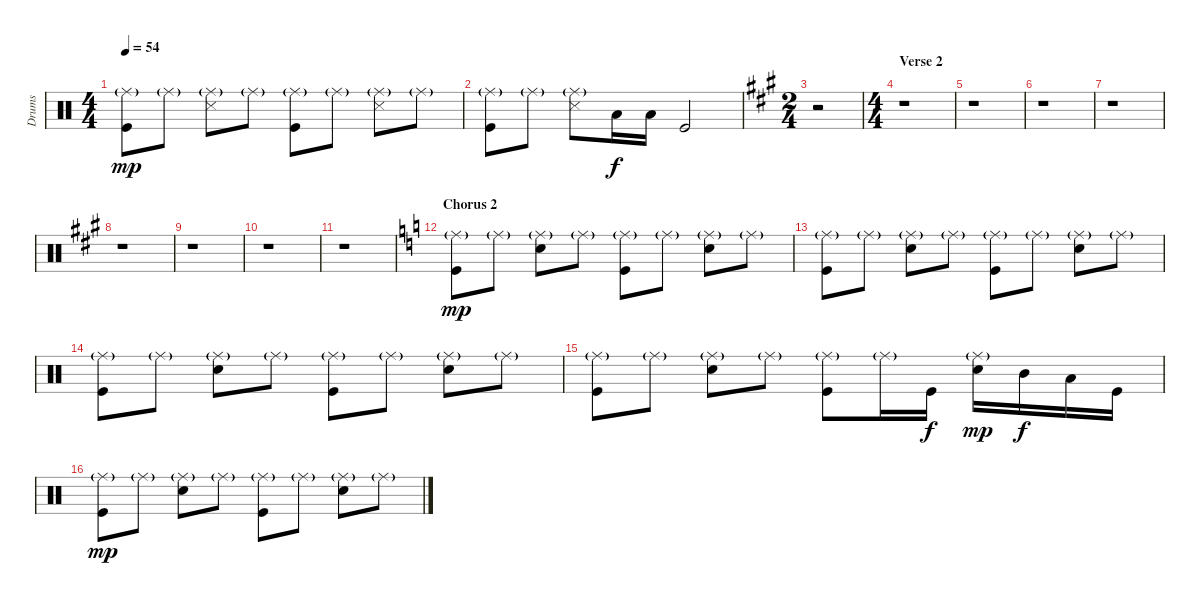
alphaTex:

\track ("Drums" "Drums") {instrument percussion}
\staff {score}
\articulation defaults
\ts (4 4)
\tempo 54
\clef neutral
\ks c
("Ride (middle)"{g} "Kick (hit)").8{dy mp} "Ride (middle)"{g}.8 ("Ride (middle)"{g} "Snare (side stick) 3").8 "Ride (middle)"{g}.8 ("Ride (middle)"{g} "Kick (hit)").8 "Ride (middle)"{g}.8 ("Ride (middle)"{g} "Snare (side stick) 3").8 "Ride (middle)"{g}.8 |
("Ride (middle)"{g} "Kick (hit)").8 "Ride (middle)"{g}.8 ("Ride (middle)"{g} "Snare (side stick) 3").8 "Low Tom (hit)".16{dy f} "Low Tom (hit)".16 "Kick (hit)".2 |
\ts (2 4)
\ks a
r.2 |
\ts (4 4)
\section ("" "Verse 2")
r.1 |
r.1 |
r.1 |
r.1 |
r.1 |
r.1 |
r.1 |
r.1 |
\section ("" "Chorus 2")
\ks c
("Ride (middle)"{g} "Kick (hit)").8{dy mp} "Ride (middle)"{g}.8 ("Ride (middle)"{g} "Electric Snare (hit)").8 "Ride (middle)"{g}.8 ("Ride (middle)"{g} "Kick (hit)").8 "Ride (middle)"{g}.8 ("Ride (middle)"{g} "Electric Snare (hit)").8 "Ride (middle)"{g}.8 |
("Ride (middle)"{g} "Kick (hit)").8 "Ride (middle)"{g}.8 ("Ride (middle)"{g} "Electric Snare (hit)").8 "Ride (middle)"{g}.8 ("Ride (middle)"{g} "Kick (hit)").8 "Ride (middle)"{g}.8 ("Ride (middle)"{g} "Electric Snare (hit)").8 "Ride (middle)"{g}.8 |
("Ride (middle)"{g} "Kick (hit)").8 "Ride (middle)"{g}.8 ("Ride (middle)"{g} "Electric Snare (hit)").8 "Ride (middle)"{g}.8 ("Ride (middle)"{g} "Kick (hit)").8 "Ride (middle)"{g}.8 ("Ride (middle)"{g} "Electric Snare (hit)").8 "Ride (middle)"{g}.8 |
("Ride (middle)"{g} "Kick (hit)").8 "Ride (middle)"{g}.8 ("Ride (middle)"{g} "Electric Snare (hit)").8 "Ride (middle)"{g}.8 ("Ride (middle)"{g} "Kick (hit)").8 "Ride (middle)"{g}.16 "Kick (hit)".16{dy f} ("Ride (middle)"{g} "Electric Snare (hit)").16{dy mp} "Mid Tom (hit)".16{dy f} "Low Tom (hit)".16 "Kick (hit)".16 |
("Ride (middle)"{g} "Kick (hit)").8{dy mp} "Ride (middle)"{g}.8 ("Ride (middle)"{g} "Electric Snare (hit)").8 "Ride (middle)"{g}.8 ("Ride (middle)"{g} "Kick (hit)").8 "Ride (middle)"{g}.8 ("Ride (middle)"{g} "Electric Snare (hit)").8 "Ride (middle)"{g}.8
